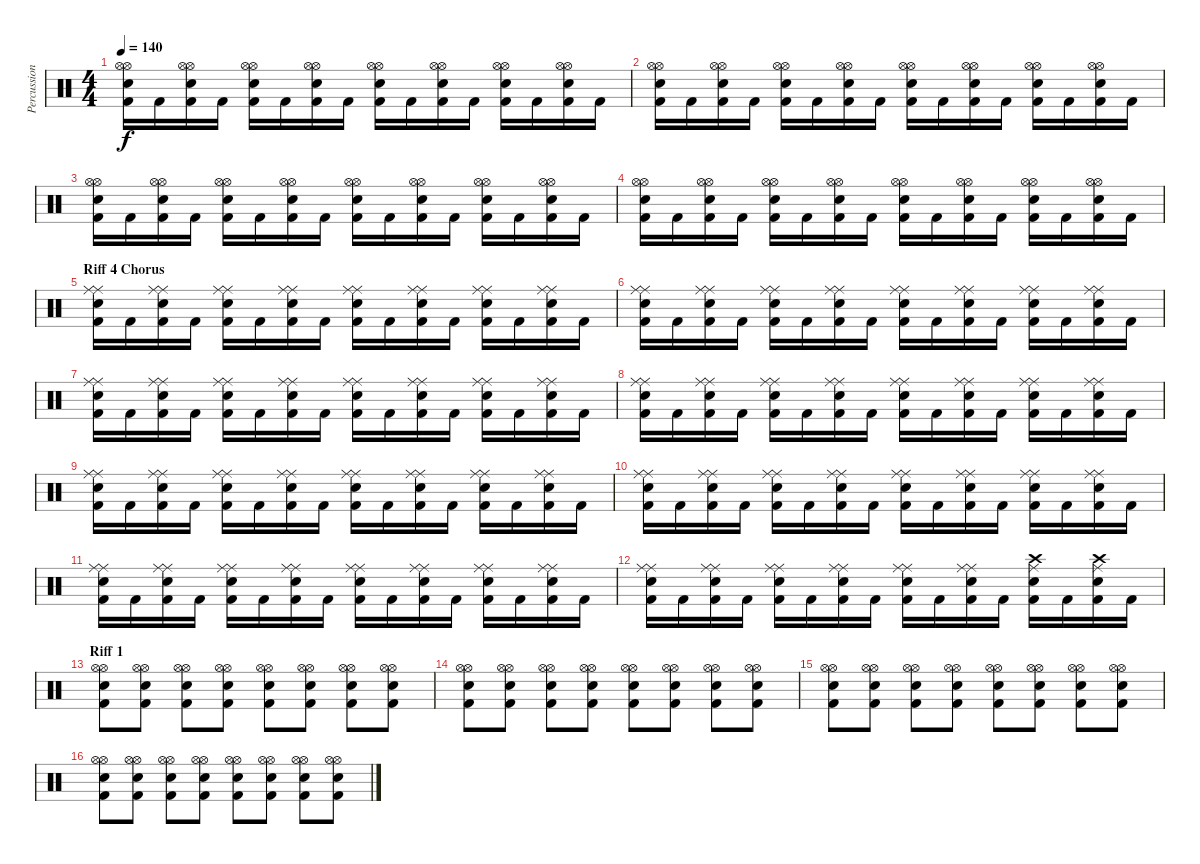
\track ("Percussion" "Percussion") {instrument percussion}
\staff {score}
\articulation defaults
\ts (4 4)
\tempo 140
\clef neutral
\ks c
("Hi-Hat (open)" "Hi-Hat (open)" "Electric Snare (hit)" "Kick (hit) 2").16{dy f} "Kick (hit) 2".16 ("Hi-Hat (open)" "Hi-Hat (open)" "Electric Snare (hit)" "Kick (hit) 2").16 "Kick (hit) 2".16 ("Hi-Hat (open)" "Hi-Hat (open)" "Electric Snare (hit)" "Kick (hit) 2").16 "Kick (hit) 2".16 ("Hi-Hat (open)" "Hi-Hat (open)" "Electric Snare (hit)" "Kick (hit) 2").16 "Kick (hit) 2".16 ("Hi-Hat (open)" "Hi-Hat (open)" "Electric Snare (hit)" "Kick (hit) 2").16 "Kick (hit) 2".16 ("Hi-Hat (open)" "Hi-Hat (open)" "Electric Snare (hit)" "Kick (hit) 2").16 "Kick (hit) 2".16 ("Hi-Hat (open)" "Hi-Hat (open)" "Electric Snare (hit)" "Kick (hit) 2").16 "Kick (hit) 2".16 ("Hi-Hat (open)" "Hi-Hat (open)" "Electric Snare (hit)" "Kick (hit) 2").16 "Kick (hit) 2".16 |
("Hi-Hat (open)" "Hi-Hat (open)" "Electric Snare (hit)" "Kick (hit) 2").16 "Kick (hit) 2".16 ("Hi-Hat (open)" "Hi-Hat (open)" "Electric Snare (hit)" "Kick (hit) 2").16 "Kick (hit) 2".16 ("Hi-Hat (open)" "Hi-Hat (open)" "Electric Snare (hit)" "Kick (hit) 2").16 "Kick (hit) 2".16 ("Hi-Hat (open)" "Hi-Hat (open)" "Electric Snare (hit)" "Kick (hit) 2").16 "Kick (hit) 2".16 ("Hi-Hat (open)" "Hi-Hat (open)" "Electric Snare (hit)" "Kick (hit) 2").16 "Kick (hit) 2".16 ("Hi-Hat (open)" "Hi-Hat (open)" "Electric Snare (hit)" "Kick (hit) 2").16 "Kick (hit) 2".16 ("Hi-Hat (open)" "Hi-Hat (open)" "Electric Snare (hit)" "Kick (hit) 2").16 "Kick (hit) 2".16 ("Hi-Hat (open)" "Hi-Hat (open)" "Electric Snare (hit)" "Kick (hit) 2").16 "Kick (hit) 2".16 |
("Hi-Hat (open)" "Hi-Hat (open)" "Electric Snare (hit)" "Kick (hit) 2").16 "Kick (hit) 2".16 ("Hi-Hat (open)" "Hi-Hat (open)" "Electric Snare (hit)" "Kick (hit) 2").16 "Kick (hit) 2".16 ("Hi-Hat (open)" "Hi-Hat (open)" "Electric Snare (hit)" "Kick (hit) 2").16 "Kick (hit) 2".16 ("Hi-Hat (open)" "Hi-Hat (open)" "Electric Snare (hit)" "Kick (hit) 2").16 "Kick (hit) 2".16 ("Hi-Hat (open)" "Hi-Hat (open)" "Electric Snare (hit)" "Kick (hit) 2").16 "Kick (hit) 2".16 ("Hi-Hat (open)" "Hi-Hat (open)" "Electric Snare (hit)" "Kick (hit) 2").16 "Kick (hit) 2".16 ("Hi-Hat (open)" "Hi-Hat (open)" "Electric Snare (hit)" "Kick (hit) 2").16 "Kick (hit) 2".16 ("Hi-Hat (open)" "Hi-Hat (open)" "Electric Snare (hit)" "Kick (hit) 2").16 "Kick (hit) 2".16 |
("Hi-Hat (open)" "Hi-Hat (open)" "Electric Snare (hit)" "Kick (hit) 2").16 "Kick (hit) 2".16 ("Hi-Hat (open)" "Hi-Hat (open)" "Electric Snare (hit)" "Kick (hit) 2").16 "Kick (hit) 2".16 ("Hi-Hat (open)" "Hi-Hat (open)" "Electric Snare (hit)" "Kick (hit) 2").16 "Kick (hit) 2".16 ("Hi-Hat (open)" "Hi-Hat (open)" "Electric Snare (hit)" "Kick (hit) 2").16 "Kick (hit) 2".16 ("Hi-Hat (open)" "Hi-Hat (open)" "Electric Snare (hit)" "Kick (hit) 2").16 "Kick (hit) 2".16 ("Hi-Hat (open)" "Hi-Hat (open)" "Electric Snare (hit)" "Kick (hit) 2").16 "Kick (hit) 2".16 ("Hi-Hat (open)" "Hi-Hat (open)" "Electric Snare (hit)" "Kick (hit) 2").16 "Kick (hit) 2".16 ("Hi-Hat (open)" "Hi-Hat (open)" "Electric Snare (hit)" "Kick (hit) 2").16 "Kick (hit) 2".16 |
\section ("" "Riff 4 Chorus")
("Ride (middle)" "Ride (middle)" "Electric Snare (hit)" "Kick (hit) 2").16 "Kick (hit) 2".16 ("Ride (middle)" "Ride (middle)" "Electric Snare (hit)" "Kick (hit) 2").16 "Kick (hit) 2".16 ("Ride (middle)" "Ride (middle)" "Electric Snare (hit)" "Kick (hit) 2").16 "Kick (hit) 2".16 ("Ride (middle)" "Ride (middle)" "Electric Snare (hit)" "Kick (hit) 2").16 "Kick (hit) 2".16 ("Ride (middle)" "Ride (middle)" "Electric Snare (hit)" "Kick (hit) 2").16 "Kick (hit) 2".16 ("Ride (middle)" "Ride (middle)" "Electric Snare (hit)" "Kick (hit) 2").16 "Kick (hit) 2".16 ("Ride (middle)" "Ride (middle)" "Electric Snare (hit)" "Kick (hit) 2").16 "Kick (hit) 2".16 ("Ride (middle)" "Ride (middle)" "Electric Snare (hit)" "Kick (hit) 2").16 "Kick (hit) 2".16 |
("Ride (middle)" "Ride (middle)" "Electric Snare (hit)" "Kick (hit) 2").16 "Kick (hit) 2".16 ("Ride (middle)" "Ride (middle)" "Electric Snare (hit)" "Kick (hit) 2").16 "Kick (hit) 2".16 ("Ride (middle)" "Ride (middle)" "Electric Snare (hit)" "Kick (hit) 2").16 "Kick (hit) 2".16 ("Ride (middle)" "Ride (middle)" "Electric Snare (hit)" "Kick (hit) 2").16 "Kick (hit) 2".16 ("Ride (middle)" "Ride (middle)" "Electric Snare (hit)" "Kick (hit) 2").16 "Kick (hit) 2".16 ("Ride (middle)" "Ride (middle)" "Electric Snare (hit)" "Kick (hit) 2").16 "Kick (hit) 2".16 ("Ride (middle)" "Ride (middle)" "Electric Snare (hit)" "Kick (hit) 2").16 "Kick (hit) 2".16 ("Ride (middle)" "Ride (middle)" "Electric Snare (hit)" "Kick (hit) 2").16 "Kick (hit) 2".16 |
("Ride (middle)" "Ride (middle)" "Electric Snare (hit)" "Kick (hit) 2").16 "Kick (hit) 2".16 ("Ride (middle)" "Ride (middle)" "Electric Snare (hit)" "Kick (hit) 2").16 "Kick (hit) 2".16 ("Ride (middle)" "Ride (middle)" "Electric Snare (hit)" "Kick (hit) 2").16 "Kick (hit) 2".16 ("Ride (middle)" "Ride (middle)" "Electric Snare (hit)" "Kick (hit) 2").16 "Kick (hit) 2".16 ("Ride (middle)" "Ride (middle)" "Electric Snare (hit)" "Kick (hit) 2").16 "Kick (hit) 2".16 ("Ride (middle)" "Ride (middle)" "Electric Snare (hit)" "Kick (hit) 2").16 "Kick (hit) 2".16 ("Ride (middle)" "Ride (middle)" "Electric Snare (hit)" "Kick (hit) 2").16 "Kick (hit) 2".16 ("Ride (middle)" "Ride (middle)" "Electric Snare (hit)" "Kick (hit) 2").16 "Kick (hit) 2".16 |
("Ride (middle)" "Ride (middle)" "Electric Snare (hit)" "Kick (hit) 2").16 "Kick (hit) 2".16 ("Ride (middle)" "Ride (middle)" "Electric Snare (hit)" "Kick (hit) 2").16 "Kick (hit) 2".16 ("Ride (middle)" "Ride (middle)" "Electric Snare (hit)" "Kick (hit) 2").16 "Kick (hit) 2".16 ("Ride (middle)" "Ride (middle)" "Electric Snare (hit)" "Kick (hit) 2").16 "Kick (hit) 2".16 ("Ride (middle)" "Ride (middle)" "Electric Snare (hit)" "Kick (hit) 2").16 "Kick (hit) 2".16 ("Ride (middle)" "Ride (middle)" "Electric Snare (hit)" "Kick (hit) 2").16 "Kick (hit) 2".16 ("Ride (middle)" "Ride (middle)" "Electric Snare (hit)" "Kick (hit) 2").16 "Kick (hit) 2".16 ("Ride (middle)" "Ride (middle)" "Electric Snare (hit)" "Kick (hit) 2").16 "Kick (hit) 2".16 |
("Ride (middle)" "Ride (middle)" "Electric Snare (hit)" "Kick (hit) 2").16 "Kick (hit) 2".16 ("Ride (middle)" "Ride (middle)" "Electric Snare (hit)" "Kick (hit) 2").16 "Kick (hit) 2".16 ("Ride (middle)" "Ride (middle)" "Electric Snare (hit)" "Kick (hit) 2").16 "Kick (hit) 2".16 ("Ride (middle)" "Ride (middle)" "Electric Snare (hit)" "Kick (hit) 2").16 "Kick (hit) 2".16 ("Ride (middle)" "Ride (middle)" "Electric Snare (hit)" "Kick (hit) 2").16 "Kick (hit) 2".16 ("Ride (middle)" "Ride (middle)" "Electric Snare (hit)" "Kick (hit) 2").16 "Kick (hit) 2".16 ("Ride (middle)" "Ride (middle)" "Electric Snare (hit)" "Kick (hit) 2").16 "Kick (hit) 2".16 ("Ride (middle)" "Ride (middle)" "Electric Snare (hit)" "Kick (hit) 2").16 "Kick (hit) 2".16 |
("Ride (middle)" "Ride (middle)" "Electric Snare (hit)" "Kick (hit) 2").16 "Kick (hit) 2".16 ("Ride (middle)" "Ride (middle)" "Electric Snare (hit)" "Kick (hit) 2").16 "Kick (hit) 2".16 ("Ride (middle)" "Ride (middle)" "Electric Snare (hit)" "Kick (hit) 2").16 "Kick (hit) 2".16 ("Ride (middle)" "Ride (middle)" "Electric Snare (hit)" "Kick (hit) 2").16 "Kick (hit) 2".16 ("Ride (middle)" "Ride (middle)" "Electric Snare (hit)" "Kick (hit) 2").16 "Kick (hit) 2".16 ("Ride (middle)" "Ride (middle)" "Electric Snare (hit)" "Kick (hit) 2").16 "Kick (hit) 2".16 ("Ride (middle)" "Ride (middle)" "Electric Snare (hit)" "Kick (hit) 2").16 "Kick (hit) 2".16 ("Ride (middle)" "Ride (middle)" "Electric Snare (hit)" "Kick (hit) 2").16 "Kick (hit) 2".16 |
("Ride (middle)" "Ride (middle)" "Electric Snare (hit)" "Kick (hit) 2").16 "Kick (hit) 2".16 ("Ride (middle)" "Ride (middle)" "Electric Snare (hit)" "Kick (hit) 2").16 "Kick (hit) 2".16 ("Ride (middle)" "Ride (middle)" "Electric Snare (hit)" "Kick (hit) 2").16 "Kick (hit) 2".16 ("Ride (middle)" "Ride (middle)" "Electric Snare (hit)" "Kick (hit) 2").16 "Kick (hit) 2".16 ("Ride (middle)" "Ride (middle)" "Electric Snare (hit)" "Kick (hit) 2").16 "Kick (hit) 2".16 ("Ride (middle)" "Ride (middle)" "Electric Snare (hit)" "Kick (hit) 2").16 "Kick (hit) 2".16 ("Ride (middle)" "Ride (middle)" "Electric Snare (hit)" "Kick (hit) 2").16 "Kick (hit) 2".16 ("Ride (middle)" "Ride (middle)" "Electric Snare (hit)" "Kick (hit) 2").16 "Kick (hit) 2".16 |
("Ride (middle)" "Ride (middle)" "Electric Snare (hit)" "Kick (hit) 2").16 "Kick (hit) 2".16 ("Ride (middle)" "Ride (middle)" "Electric Snare (hit)" "Kick (hit) 2").16 "Kick (hit) 2".16 ("Ride (middle)" "Ride (middle)" "Electric Snare (hit)" "Kick (hit) 2").16 "Kick (hit) 2".16 ("Ride (middle)" "Ride (middle)" "Electric Snare (hit)" "Kick (hit) 2").16 "Kick (hit) 2".16 ("Ride (middle)" "Ride (middle)" "Electric Snare (hit)" "Kick (hit) 2").16 "Kick (hit) 2".16 ("Ride (middle)" "Ride (middle)" "Electric Snare (hit)" "Kick (hit) 2").16 "Kick (hit) 2".16 ("Ride (middle)" "Crash high (hit)" "Electric Snare (hit)" "Kick (hit) 2").16 "Kick (hit) 2".16 ("Ride (middle)" "Crash high (hit)" "Electric Snare (hit)" "Kick (hit) 2").16 "Kick (hit) 2".16 |
\section ("" "Riff 1")
("Hi-Hat (open)" "Hi-Hat (open)" "Electric Snare (hit)" "Kick (hit) 2").8 ("Hi-Hat (open)" "Hi-Hat (open)" "Electric Snare (hit)" "Kick (hit) 2").8 ("Hi-Hat (open)" "Hi-Hat (open)" "Electric Snare (hit)" "Kick (hit) 2").8 ("Hi-Hat (open)" "Hi-Hat (open)" "Electric Snare (hit)" "Kick (hit) 2").8 ("Hi-Hat (open)" "Hi-Hat (open)" "Electric Snare (hit)" "Kick (hit) 2").8 ("Hi-Hat (open)" "Hi-Hat (open)" "Electric Snare (hit)" "Kick (hit) 2").8 ("Hi-Hat (open)" "Hi-Hat (open)" "Electric Snare (hit)" "Kick (hit) 2").8 ("Hi-Hat (open)" "Hi-Hat (open)" "Electric Snare (hit)" "Kick (hit) 2").8 |
("Hi-Hat (open)" "Hi-Hat (open)" "Electric Snare (hit)" "Kick (hit) 2").8 ("Hi-Hat (open)" "Hi-Hat (open)" "Electric Snare (hit)" "Kick (hit) 2").8 ("Hi-Hat (open)" "Hi-Hat (open)" "Electric Snare (hit)" "Kick (hit) 2").8 ("Hi-Hat (open)" "Hi-Hat (open)" "Electric Snare (hit)" "Kick (hit) 2").8 ("Hi-Hat (open)" "Hi-Hat (open)" "Electric Snare (hit)" "Kick (hit) 2").8 ("Hi-Hat (open)" "Hi-Hat (open)" "Electric Snare (hit)" "Kick (hit) 2").8 ("Hi-Hat (open)" "Hi-Hat (open)" "Electric Snare (hit)" "Kick (hit) 2").8 ("Hi-Hat (open)" "Hi-Hat (open)" "Electric Snare (hit)" "Kick (hit) 2").8 |
("Hi-Hat (open)" "Hi-Hat (open)" "Electric Snare (hit)" "Kick (hit) 2").8 ("Hi-Hat (open)" "Hi-Hat (open)" "Electric Snare (hit)" "Kick (hit) 2").8 ("Hi-Hat (open)" "Hi-Hat (open)" "Electric Snare (hit)" "Kick (hit) 2").8 ("Hi-Hat (open)" "Hi-Hat (open)" "Electric Snare (hit)" "Kick (hit) 2").8 ("Hi-Hat (open)" "Hi-Hat (open)" "Electric Snare (hit)" "Kick (hit) 2").8 ("Hi-Hat (open)" "Hi-Hat (open)" "Electric Snare (hit)" "Kick (hit) 2").8 ("Hi-Hat (open)" "Hi-Hat (open)" "Electric Snare (hit)" "Kick (hit) 2").8 ("Hi-Hat (open)" "Hi-Hat (open)" "Electric Snare (hit)" "Kick (hit) 2").8 |
("Hi-Hat (open)" "Hi-Hat (open)" "Electric Snare (hit)" "Kick (hit) 2").8 ("Hi-Hat (open)" "Hi-Hat (open)" "Electric Snare (hit)" "Kick (hit) 2").8 ("Hi-Hat (open)" "Hi-Hat (open)" "Electric Snare (hit)" "Kick (hit) 2").8 ("Hi-Hat (open)" "Hi-Hat (open)" "Electric Snare (hit)" "Kick (hit) 2").8 ("Hi-Hat (open)" "Hi-Hat (open)" "Electric Snare (hit)" "Kick (hit) 2").8 ("Hi-Hat (open)" "Hi-Hat (open)" "Electric Snare (hit)" "Kick (hit) 2").8 ("Hi-Hat (open)" "Hi-Hat (open)" "Electric Snare (hit)" "Kick (hit) 2").8 ("Hi-Hat (open)" "Hi-Hat (open)" "Electric Snare (hit)" "Kick (hit) 2").8
